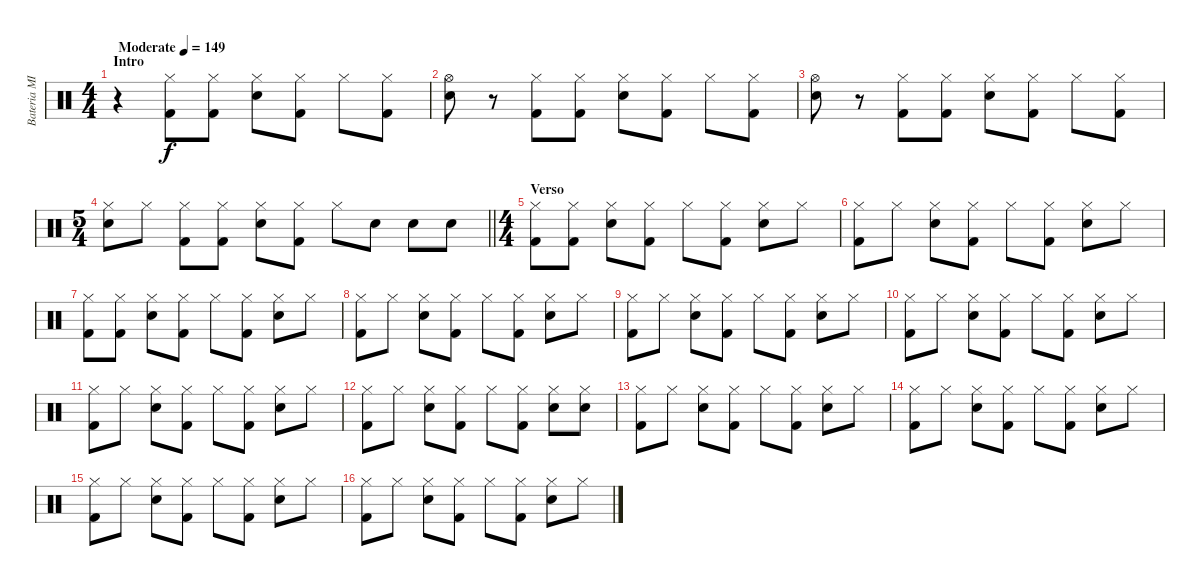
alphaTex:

\track ("Bateria MIDI" "Bateria MI") {instrument percussion}
\staff {score}
\articulation defaults
\ts (4 4)
\section ("" "Intro")
\tempo (149 "Moderate")
\clef neutral
\ks c
r.4{dy f} ("Hi-Hat (closed)" "Kick (hit) 2").8 ("Hi-Hat (closed)" "Kick (hit) 2").8 ("Hi-Hat (closed)" "Snare (hit) 2").8 ("Hi-Hat (closed)" "Kick (hit) 2").8 "Hi-Hat (closed)".8 ("Hi-Hat (closed)" "Kick (hit) 2").8 |
("Hi-Hat (open)" "Snare (hit) 2").8 r.8 ("Hi-Hat (closed)" "Kick (hit) 2").8 ("Hi-Hat (closed)" "Kick (hit) 2").8 ("Hi-Hat (closed)" "Snare (hit) 2").8 ("Hi-Hat (closed)" "Kick (hit) 2").8 "Hi-Hat (closed)".8 ("Hi-Hat (closed)" "Kick (hit) 2").8 |
("Hi-Hat (open)" "Snare (hit) 2").8 r.8 ("Hi-Hat (closed)" "Kick (hit) 2").8 ("Hi-Hat (closed)" "Kick (hit) 2").8 ("Hi-Hat (closed)" "Snare (hit) 2").8 ("Hi-Hat (closed)" "Kick (hit) 2").8 "Hi-Hat (closed)".8 ("Hi-Hat (closed)" "Kick (hit) 2").8 |
\ts (5 4)
\barLineRight lightlight
("Hi-Hat (closed)" "Snare (hit) 2").8 "Hi-Hat (closed)".8 ("Hi-Hat (closed)" "Kick (hit) 2").8 ("Hi-Hat (closed)" "Kick (hit) 2").8 ("Hi-Hat (closed)" "Snare (hit) 2").8 ("Hi-Hat (closed)" "Kick (hit) 2").8 "Hi-Hat (closed)".8 "Snare (hit) 2".8 "Snare (hit) 2".8 "Snare (hit) 2".8 |
\ts (4 4)
\section ("" "Verso")
("Hi-Hat (closed)" "Kick (hit) 2").8 ("Hi-Hat (closed)" "Kick (hit) 2").8 ("Hi-Hat (closed)" "Snare (hit) 2").8 ("Hi-Hat (closed)" "Kick (hit) 2").8 "Hi-Hat (closed)".8 ("Hi-Hat (closed)" "Kick (hit) 2").8 ("Hi-Hat (closed)" "Snare (hit) 2").8 "Hi-Hat (closed)".8 |
("Hi-Hat (closed)" "Kick (hit) 2").8 "Hi-Hat (closed)".8 ("Hi-Hat (closed)" "Snare (hit) 2").8 ("Hi-Hat (closed)" "Kick (hit) 2").8 "Hi-Hat (closed)".8 ("Hi-Hat (closed)" "Kick (hit) 2").8 ("Hi-Hat (closed)" "Snare (hit) 2").8 "Hi-Hat (closed)".8 |
("Hi-Hat (closed)" "Kick (hit) 2").8 ("Hi-Hat (closed)" "Kick (hit) 2").8 ("Hi-Hat (closed)" "Snare (hit) 2").8 ("Hi-Hat (closed)" "Kick (hit) 2").8 "Hi-Hat (closed)".8 ("Hi-Hat (closed)" "Kick (hit) 2").8 ("Hi-Hat (closed)" "Snare (hit) 2").8 "Hi-Hat (closed)".8 |
("Hi-Hat (closed)" "Kick (hit) 2").8 "Hi-Hat (closed)".8 ("Hi-Hat (closed)" "Snare (hit) 2").8 ("Hi-Hat (closed)" "Kick (hit) 2").8 "Hi-Hat (closed)".8 ("Hi-Hat (closed)" "Kick (hit) 2").8 ("Hi-Hat (closed)" "Snare (hit) 2").8 "Hi-Hat (closed)".8 |
("Hi-Hat (closed)" "Kick (hit) 2").8 "Hi-Hat (closed)".8 ("Hi-Hat (closed)" "Snare (hit) 2").8 ("Hi-Hat (closed)" "Kick (hit) 2").8 "Hi-Hat (closed)".8 ("Hi-Hat (closed)" "Kick (hit) 2").8 ("Hi-Hat (closed)" "Snare (hit) 2").8 "Hi-Hat (closed)".8 |
("Hi-Hat (closed)" "Kick (hit) 2").8 "Hi-Hat (closed)".8 ("Hi-Hat (closed)" "Snare (hit) 2").8 ("Hi-Hat (closed)" "Kick (hit) 2").8 "Hi-Hat (closed)".8 ("Hi-Hat (closed)" "Kick (hit) 2").8 ("Hi-Hat (closed)" "Snare (hit) 2").8 "Hi-Hat (closed)".8 |
("Hi-Hat (closed)" "Kick (hit) 2").8 "Hi-Hat (closed)".8 ("Hi-Hat (closed)" "Snare (hit) 2").8 ("Hi-Hat (closed)" "Kick (hit) 2").8 "Hi-Hat (closed)".8 ("Hi-Hat (closed)" "Kick (hit) 2").8 ("Hi-Hat (closed)" "Snare (hit) 2").8 "Hi-Hat (closed)".8 |
("Hi-Hat (closed)" "Kick (hit) 2").8 "Hi-Hat (closed)".8 ("Hi-Hat (closed)" "Snare (hit) 2").8 ("Hi-Hat (closed)" "Kick (hit) 2").8 "Hi-Hat (closed)".8 ("Hi-Hat (closed)" "Kick (hit) 2").8 ("Hi-Hat (closed)" "Snare (hit) 2").8 ("Hi-Hat (closed)" "Snare (hit) 2").8 |
("Hi-Hat (closed)" "Kick (hit) 2").8 "Hi-Hat (closed)".8 ("Hi-Hat (closed)" "Snare (hit) 2").8 ("Hi-Hat (closed)" "Kick (hit) 2").8 "Hi-Hat (closed)".8 ("Hi-Hat (closed)" "Kick (hit) 2").8 ("Hi-Hat (closed)" "Snare (hit) 2").8 "Hi-Hat (closed)".8 |
("Hi-Hat (closed)" "Kick (hit) 2").8 "Hi-Hat (closed)".8 ("Hi-Hat (closed)" "Snare (hit) 2").8 ("Hi-Hat (closed)" "Kick (hit) 2").8 "Hi-Hat (closed)".8 ("Hi-Hat (closed)" "Kick (hit) 2").8 ("Hi-Hat (closed)" "Snare (hit) 2").8 "Hi-Hat (closed)".8 |
("Hi-Hat (closed)" "Kick (hit) 2").8 "Hi-Hat (closed)".8 ("Hi-Hat (closed)" "Snare (hit) 2").8 ("Hi-Hat (closed)" "Kick (hit) 2").8 "Hi-Hat (closed)".8 ("Hi-Hat (closed)" "Kick (hit) 2").8 ("Hi-Hat (closed)" "Snare (hit) 2").8 "Hi-Hat (closed)".8 |
("Hi-Hat (closed)" "Kick (hit) 2").8 "Hi-Hat (closed)".8 ("Hi-Hat (closed)" "Snare (hit) 2").8 ("Hi-Hat (closed)" "Kick (hit) 2").8 "Hi-Hat (closed)".8 ("Hi-Hat (closed)" "Kick (hit) 2").8 ("Hi-Hat (closed)" "Snare (hit) 2").8 "Hi-Hat (closed)".8
